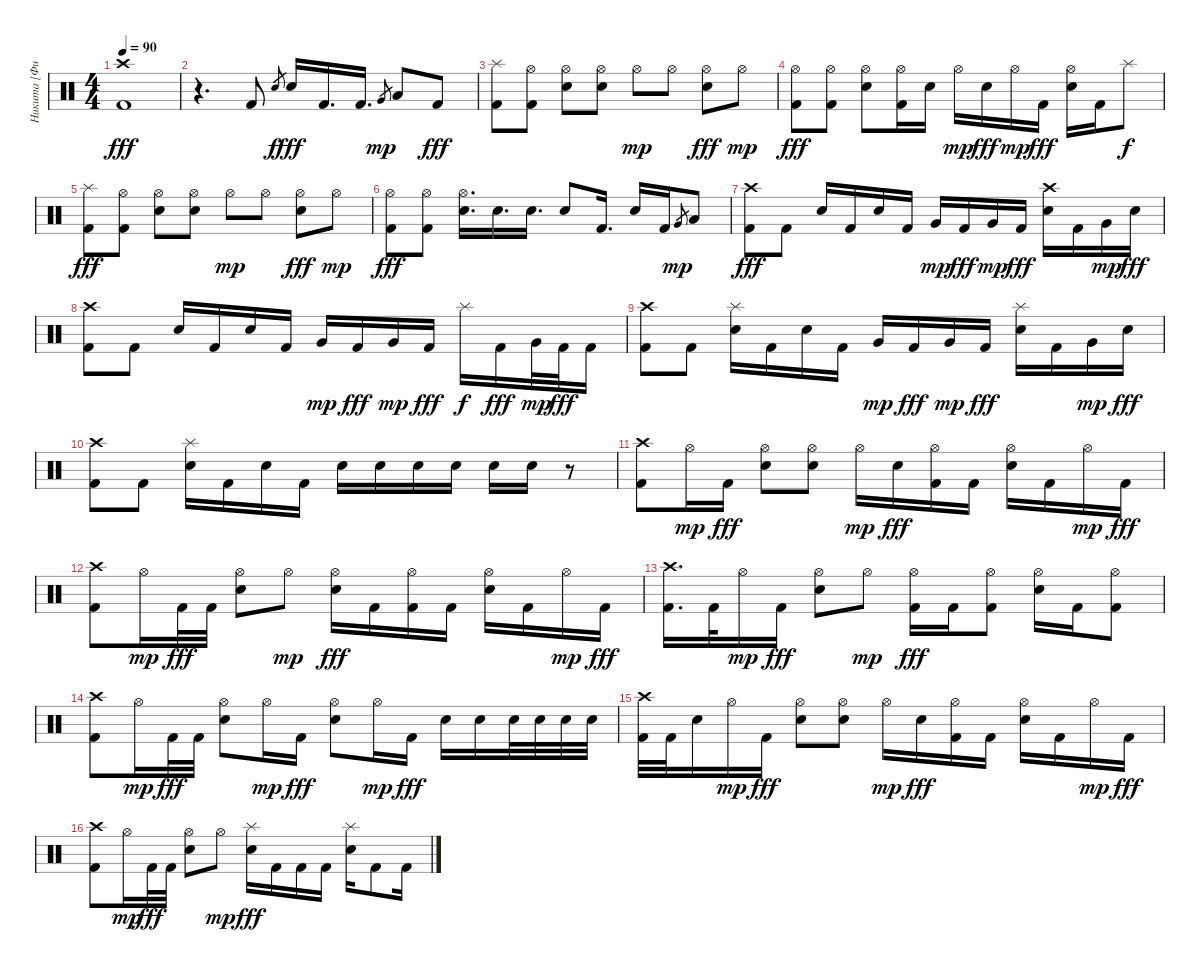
\track ("Никита [Фил]" "Никита [Фи") {instrument percussion}
\staff {score}
\articulation defaults
\ts (4 4)
\tempo 90
\clef neutral
\ks c
("Crash high (hit)" "Kick (hit) 2").1{dy fff} |
r.4{d} "Kick (hit) 2".8 "Electric Snare (hit)".8{gr dy f} "Electric Snare (hit)".16{dy fff} "Kick (hit) 2".16{d} "Kick (hit) 2".16{d} "Very Low Tom (hit)".8{gr dy mp} "Low Floor Tom (hit)".8 "Kick (hit) 2".8{dy fff} |
("Splash (hit)" "Kick (hit) 2").8 ("Hi-Hat (open)" "Kick (hit) 2").8 ("Hi-Hat (open)" "Electric Snare (hit)").8 ("Hi-Hat (open)" "Electric Snare (hit)").8 "Hi-Hat (open)".8{dy mp} "Hi-Hat (open)".8 ("Hi-Hat (open)" "Electric Snare (hit)").8{dy fff} "Hi-Hat (open)".8{dy mp} |
("Hi-Hat (open)" "Kick (hit) 2").8{dy fff} ("Hi-Hat (open)" "Kick (hit) 2").8 ("Hi-Hat (open)" "Electric Snare (hit)").8 ("Hi-Hat (open)" "Kick (hit) 2").16 "Electric Snare (hit)".16 "Hi-Hat (open)".16{dy mp} "Electric Snare (hit)".16{dy fff} "Hi-Hat (open)".16{dy mp} "Kick (hit) 2".16{dy fff} ("Hi-Hat (open)" "Electric Snare (hit)").16 "Kick (hit) 2".16 "Splash (hit)".8{dy f} |
("Splash (hit)" "Kick (hit) 2").8{dy fff} ("Hi-Hat (open)" "Kick (hit) 2").8 ("Hi-Hat (open)" "Electric Snare (hit)").8 ("Hi-Hat (open)" "Electric Snare (hit)").8 "Hi-Hat (open)".8{dy mp} "Hi-Hat (open)".8 ("Hi-Hat (open)" "Electric Snare (hit)").8{dy fff} "Hi-Hat (open)".8{dy mp} |
("Hi-Hat (open)" "Kick (hit) 2").8{dy fff} ("Hi-Hat (open)" "Kick (hit) 2").8 ("Hi-Hat (open)" "Electric Snare (hit)").16{d} "Electric Snare (hit)".16{d} "Electric Snare (hit)".16{d} "Electric Snare (hit)".8 "Kick (hit) 2".16{d} "Electric Snare (hit)".16 "Kick (hit) 2".16 "Very Low Tom (hit)".8{gr dy mp} "Low Floor Tom (hit)".8 |
("Crash high (hit)" "Kick (hit) 2").8{dy fff} "Kick (hit) 2".8 "Electric Snare (hit)".16 "Kick (hit) 2".16 "Electric Snare (hit)".16 "Kick (hit) 2".16 "Very Low Tom (hit)".16{dy mp} "Kick (hit) 2".16{dy fff} "Very Low Tom (hit)".16{dy mp} "Kick (hit) 2".16{dy fff} ("Crash high (hit)" "Electric Snare (hit)").16 "Kick (hit) 2".16 "Very Low Tom (hit)".16{dy mp} "Electric Snare (hit)".16{dy fff} |
("Crash high (hit)" "Kick (hit) 2").8 "Kick (hit) 2".8 "Electric Snare (hit)".16 "Kick (hit) 2".16 "Electric Snare (hit)".16 "Kick (hit) 2".16 "Very Low Tom (hit)".16{dy mp} "Kick (hit) 2".16{dy fff} "Very Low Tom (hit)".16{dy mp} "Kick (hit) 2".16{dy fff} "Splash (hit)".16{dy f} "Kick (hit) 2".16{dy fff} "Very Low Tom (hit)".32{dy mp} "Kick (hit) 2".32{dy fff} "Kick (hit) 2".16 |
("Crash high (hit)" "Kick (hit) 2").8 "Kick (hit) 2".8 ("Splash (hit)" "Electric Snare (hit)").16 "Kick (hit) 2".16 "Electric Snare (hit)".16 "Kick (hit) 2".16 "Very Low Tom (hit)".16{dy mp} "Kick (hit) 2".16{dy fff} "Very Low Tom (hit)".16{dy mp} "Kick (hit) 2".16{dy fff} ("Splash (hit)" "Electric Snare (hit)").16 "Kick (hit) 2".16 "Very Low Tom (hit)".16{dy mp} "Electric Snare (hit)".16{dy fff} |
("Crash high (hit)" "Kick (hit) 2").8 "Kick (hit) 2".8 ("Splash (hit)" "Electric Snare (hit)").16 "Kick (hit) 2".16 "Electric Snare (hit)".16 "Kick (hit) 2".16 "Electric Snare (hit)".16 "Electric Snare (hit)".16 "Electric Snare (hit)".16 "Electric Snare (hit)".16 "Electric Snare (hit)".16 "Electric Snare (hit)".16 r.8 |
("Crash high (hit)" "Kick (hit) 2").8 "Hi-Hat (open)".16{dy mp} "Kick (hit) 2".16{dy fff} ("Hi-Hat (open)" "Electric Snare (hit)").8 ("Hi-Hat (open)" "Electric Snare (hit)").8 "Hi-Hat (open)".16{dy mp} "Electric Snare (hit)".16{dy fff} ("Hi-Hat (open)" "Kick (hit) 2").16 "Kick (hit) 2".16 ("Hi-Hat (open)" "Electric Snare (hit)").16 "Kick (hit) 2".16 "Hi-Hat (open)".16{dy mp} "Kick (hit) 2".16{dy fff} |
("Crash high (hit)" "Kick (hit) 2").8 "Hi-Hat (open)".16{dy mp} "Kick (hit) 2".32{dy fff} "Kick (hit) 2".32 ("Hi-Hat (open)" "Electric Snare (hit)").8 "Hi-Hat (open)".8{dy mp} ("Hi-Hat (open)" "Electric Snare (hit)").16{dy fff} "Kick (hit) 2".16 ("Hi-Hat (open)" "Kick (hit) 2").16 "Kick (hit) 2".16 ("Hi-Hat (open)" "Electric Snare (hit)").16 "Kick (hit) 2".16 "Hi-Hat (open)".16{dy mp} "Kick (hit) 2".16{dy fff} |
("Crash high (hit)" "Kick (hit) 2").16{d} "Kick (hit) 2".32 "Hi-Hat (open)".16{dy mp} "Kick (hit) 2".16{dy fff} ("Hi-Hat (open)" "Electric Snare (hit)").8 "Hi-Hat (open)".8{dy mp} ("Hi-Hat (open)" "Kick (hit) 2").16{dy fff} "Kick (hit) 2".16 ("Hi-Hat (open)" "Kick (hit) 2").8 ("Hi-Hat (open)" "Electric Snare (hit)").16 "Kick (hit) 2".16 ("Hi-Hat (open)" "Kick (hit) 2").8 |
("Crash high (hit)" "Kick (hit) 2").8 "Hi-Hat (open)".16{dy mp} "Kick (hit) 2".32{dy fff} "Kick (hit) 2".32 ("Hi-Hat (open)" "Electric Snare (hit)").8 "Hi-Hat (open)".16{dy mp} "Kick (hit) 2".16{dy fff} ("Hi-Hat (open)" "Electric Snare (hit)").8 "Hi-Hat (open)".16{dy mp} "Kick (hit) 2".16{dy fff} "Electric Snare (hit)".16 "Electric Snare (hit)".16 "Electric Snare (hit)".32 "Electric Snare (hit)".32 "Electric Snare (hit)".32 "Electric Snare (hit)".32 |
("Crash high (hit)" "Kick (hit) 2").32 "Kick (hit) 2".32 "Electric Snare (hit)".16 "Hi-Hat (open)".16{dy mp} "Kick (hit) 2".16{dy fff} ("Hi-Hat (open)" "Electric Snare (hit)").8 ("Hi-Hat (open)" "Electric Snare (hit)").8 "Hi-Hat (open)".16{dy mp} "Electric Snare (hit)".16{dy fff} ("Hi-Hat (open)" "Kick (hit) 2").16 "Kick (hit) 2".16 ("Hi-Hat (open)" "Electric Snare (hit)").16 "Kick (hit) 2".16 "Hi-Hat (open)".16{dy mp} "Kick (hit) 2".16{dy fff} |
("Crash high (hit)" "Kick (hit) 2").8 "Hi-Hat (open)".16{dy mp} "Kick (hit) 2".32{dy fff} "Kick (hit) 2".32 ("Hi-Hat (open)" "Electric Snare (hit)").8 "Hi-Hat (open)".8{dy mp} ("Splash (hit)" "Electric Snare (hit)").16{dy fff} "Kick (hit) 2".16 "Kick (hit) 2".16 "Kick (hit) 2".16 ("Splash (hit)" "Electric Snare (hit)").16 "Kick (hit) 2".8 "Kick (hit) 2".16
